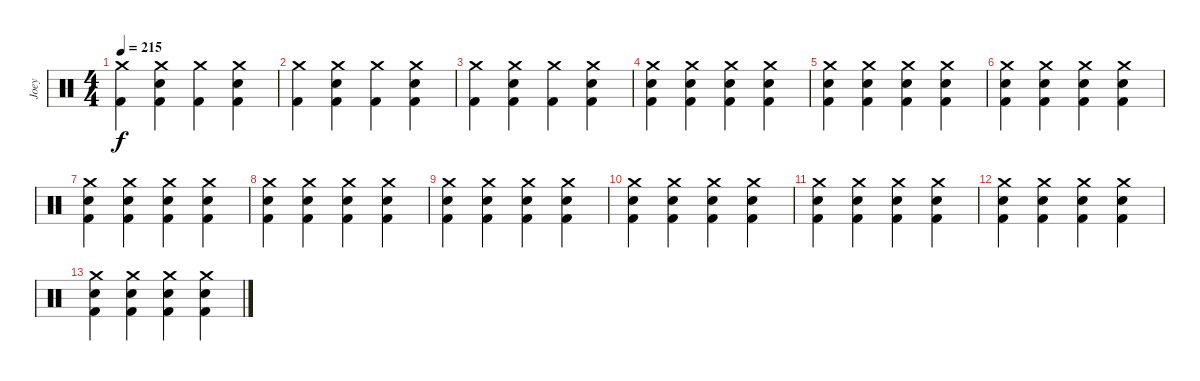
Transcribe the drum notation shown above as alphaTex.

\track ("Joey" "Joey") {instrument percussion}
\staff {score}
\articulation defaults
\ts (4 4)
\tempo 215
\clef neutral
\ks c
("Crash medium (hit)" "Kick (hit) 2").4{dy f} ("Crash medium (hit)" "Electric Snare (hit)" "Kick (hit) 2").4 ("Crash medium (hit)" "Kick (hit) 2").4 ("Crash medium (hit)" "Electric Snare (hit)" "Kick (hit) 2").4 |
("Crash medium (hit)" "Kick (hit) 2").4 ("Crash medium (hit)" "Electric Snare (hit)" "Kick (hit) 2").4 ("Crash medium (hit)" "Kick (hit) 2").4 ("Crash medium (hit)" "Electric Snare (hit)" "Kick (hit) 2").4 |
("Crash medium (hit)" "Kick (hit) 2").4 ("Crash medium (hit)" "Electric Snare (hit)" "Kick (hit) 2").4 ("Crash medium (hit)" "Kick (hit) 2").4 ("Crash medium (hit)" "Electric Snare (hit)" "Kick (hit) 2").4 |
("Crash medium (hit)" "Electric Snare (hit)" "Kick (hit) 2").4 ("Crash medium (hit)" "Electric Snare (hit)" "Kick (hit) 2").4 ("Crash medium (hit)" "Electric Snare (hit)" "Kick (hit) 2").4 ("Crash medium (hit)" "Electric Snare (hit)" "Kick (hit) 2").4 |
("Crash medium (hit)" "Electric Snare (hit)" "Kick (hit) 2").4 ("Crash medium (hit)" "Electric Snare (hit)" "Kick (hit) 2").4 ("Crash medium (hit)" "Electric Snare (hit)" "Kick (hit) 2").4 ("Crash medium (hit)" "Electric Snare (hit)" "Kick (hit) 2").4 |
("Crash medium (hit)" "Electric Snare (hit)" "Kick (hit) 2").4 ("Crash medium (hit)" "Electric Snare (hit)" "Kick (hit) 2").4 ("Crash medium (hit)" "Electric Snare (hit)" "Kick (hit) 2").4 ("Crash medium (hit)" "Electric Snare (hit)" "Kick (hit) 2").4 |
("Crash medium (hit)" "Electric Snare (hit)" "Kick (hit) 2").4 ("Crash medium (hit)" "Electric Snare (hit)" "Kick (hit) 2").4 ("Crash medium (hit)" "Electric Snare (hit)" "Kick (hit) 2").4 ("Crash medium (hit)" "Electric Snare (hit)" "Kick (hit) 2").4 |
("Crash medium (hit)" "Electric Snare (hit)" "Kick (hit) 2").4 ("Crash medium (hit)" "Electric Snare (hit)" "Kick (hit) 2").4 ("Crash medium (hit)" "Electric Snare (hit)" "Kick (hit) 2").4 ("Crash medium (hit)" "Electric Snare (hit)" "Kick (hit) 2").4 |
("Crash medium (hit)" "Electric Snare (hit)" "Kick (hit) 2").4 ("Crash medium (hit)" "Electric Snare (hit)" "Kick (hit) 2").4 ("Crash medium (hit)" "Electric Snare (hit)" "Kick (hit) 2").4 ("Crash medium (hit)" "Electric Snare (hit)" "Kick (hit) 2").4 |
("Crash medium (hit)" "Electric Snare (hit)" "Kick (hit) 2").4 ("Crash medium (hit)" "Electric Snare (hit)" "Kick (hit) 2").4 ("Crash medium (hit)" "Electric Snare (hit)" "Kick (hit) 2").4 ("Crash medium (hit)" "Electric Snare (hit)" "Kick (hit) 2").4 |
("Crash medium (hit)" "Electric Snare (hit)" "Kick (hit) 2").4 ("Crash medium (hit)" "Electric Snare (hit)" "Kick (hit) 2").4 ("Crash medium (hit)" "Electric Snare (hit)" "Kick (hit) 2").4 ("Crash medium (hit)" "Electric Snare (hit)" "Kick (hit) 2").4 |
("Crash medium (hit)" "Electric Snare (hit)" "Kick (hit) 2").4 ("Crash medium (hit)" "Electric Snare (hit)" "Kick (hit) 2").4 ("Crash medium (hit)" "Electric Snare (hit)" "Kick (hit) 2").4 ("Crash medium (hit)" "Electric Snare (hit)" "Kick (hit) 2").4 |
("Crash medium (hit)" "Electric Snare (hit)" "Kick (hit) 2").4 ("Crash medium (hit)" "Electric Snare (hit)" "Kick (hit) 2").4 ("Crash medium (hit)" "Electric Snare (hit)" "Kick (hit) 2").4 ("Crash medium (hit)" "Electric Snare (hit)" "Kick (hit) 2").4
